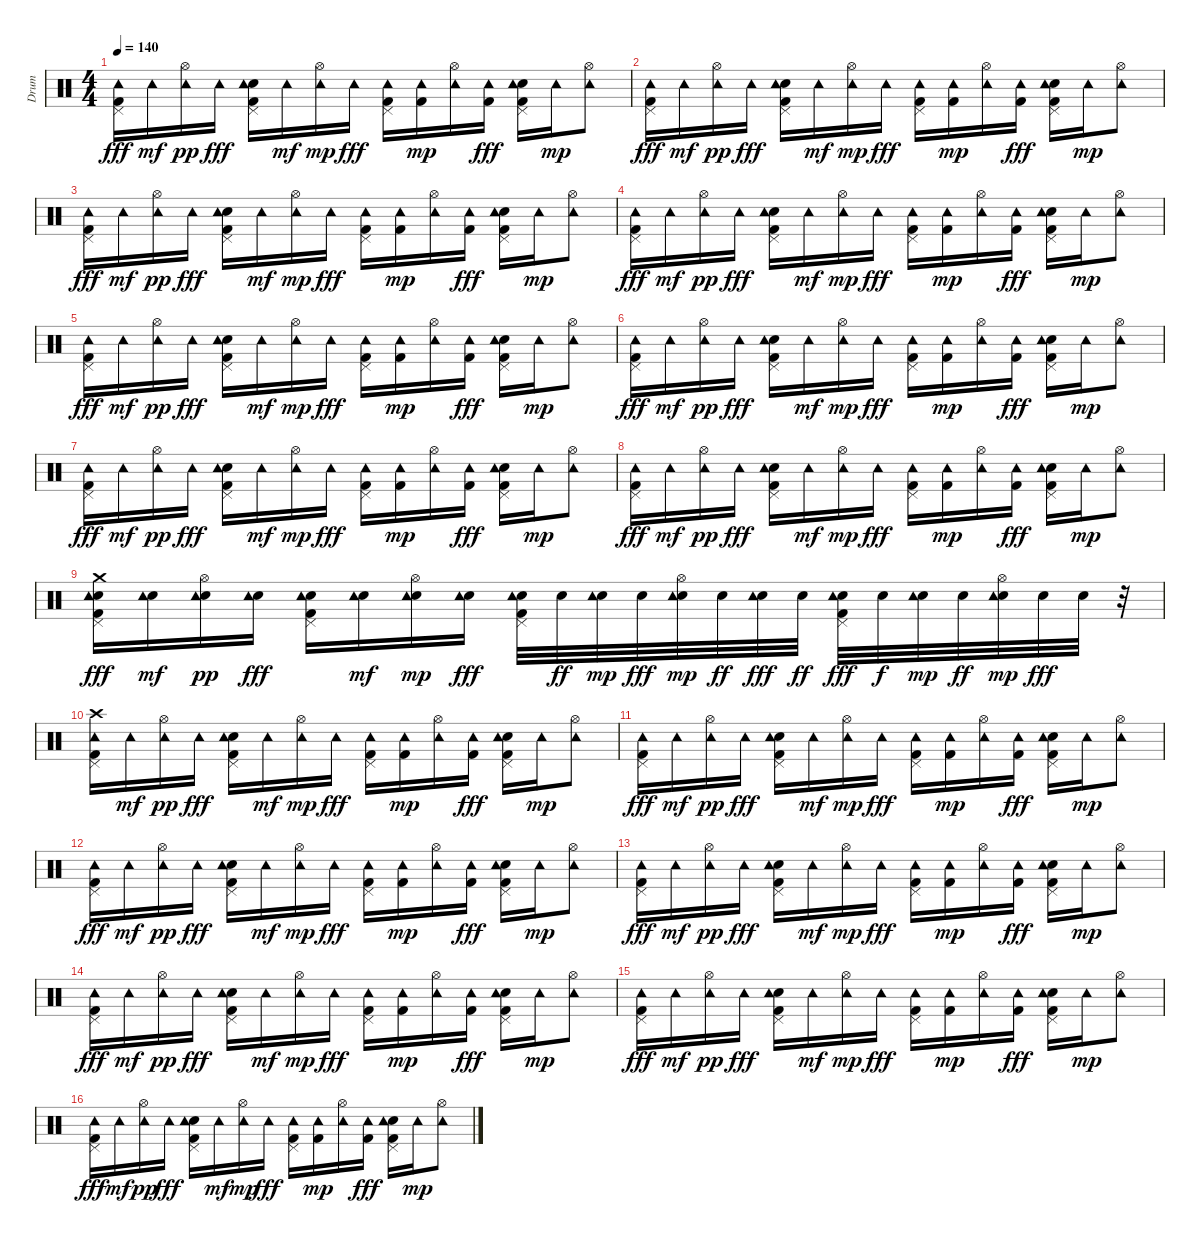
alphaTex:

\track ("Drum" "Drum") {instrument percussion}
\staff {score}
\articulation defaults
\ts (4 4)
\tempo 140
\clef neutral
\ks c
("Tambourine (hit)" "Kick (hit) 2" "Pedal Hi-Hat (hit)").16{dy fff} "Tambourine (hit)".16{dy mf} ("Hi-Hat (open)" "Tambourine (hit)").16{dy pp} "Tambourine (hit)".16{dy fff} ("Snare (hit) 2" "Tambourine (hit)" "Kick (hit) 2" "Pedal Hi-Hat (hit)").16 "Tambourine (hit)".16{dy mf} ("Hi-Hat (open)" "Tambourine (hit)").16{dy mp} "Tambourine (hit)".16{dy fff} ("Tambourine (hit)" "Kick (hit) 2" "Pedal Hi-Hat (hit)").16 ("Kick (hit) 2" "Tambourine (hit)").16{dy mp} ("Hi-Hat (open)" "Tambourine (hit)").16 ("Kick (hit) 2" "Tambourine (hit)").16{dy fff} ("Snare (hit) 2" "Tambourine (hit)" "Kick (hit) 2" "Pedal Hi-Hat (hit)").16 "Tambourine (hit)".16{dy mp} ("Hi-Hat (open)" "Tambourine (hit)").8 |
("Tambourine (hit)" "Kick (hit) 2" "Pedal Hi-Hat (hit)").16{dy fff} "Tambourine (hit)".16{dy mf} ("Hi-Hat (open)" "Tambourine (hit)").16{dy pp} "Tambourine (hit)".16{dy fff} ("Snare (hit) 2" "Tambourine (hit)" "Kick (hit) 2" "Pedal Hi-Hat (hit)").16 "Tambourine (hit)".16{dy mf} ("Hi-Hat (open)" "Tambourine (hit)").16{dy mp} "Tambourine (hit)".16{dy fff} ("Tambourine (hit)" "Kick (hit) 2" "Pedal Hi-Hat (hit)").16 ("Kick (hit) 2" "Tambourine (hit)").16{dy mp} ("Hi-Hat (open)" "Tambourine (hit)").16 ("Kick (hit) 2" "Tambourine (hit)").16{dy fff} ("Snare (hit) 2" "Tambourine (hit)" "Kick (hit) 2" "Pedal Hi-Hat (hit)").16 "Tambourine (hit)".16{dy mp} ("Hi-Hat (open)" "Tambourine (hit)").8 |
("Tambourine (hit)" "Kick (hit) 2" "Pedal Hi-Hat (hit)").16{dy fff} "Tambourine (hit)".16{dy mf} ("Hi-Hat (open)" "Tambourine (hit)").16{dy pp} "Tambourine (hit)".16{dy fff} ("Snare (hit) 2" "Tambourine (hit)" "Kick (hit) 2" "Pedal Hi-Hat (hit)").16 "Tambourine (hit)".16{dy mf} ("Hi-Hat (open)" "Tambourine (hit)").16{dy mp} "Tambourine (hit)".16{dy fff} ("Tambourine (hit)" "Kick (hit) 2" "Pedal Hi-Hat (hit)").16 ("Kick (hit) 2" "Tambourine (hit)").16{dy mp} ("Hi-Hat (open)" "Tambourine (hit)").16 ("Kick (hit) 2" "Tambourine (hit)").16{dy fff} ("Snare (hit) 2" "Tambourine (hit)" "Kick (hit) 2" "Pedal Hi-Hat (hit)").16 "Tambourine (hit)".16{dy mp} ("Hi-Hat (open)" "Tambourine (hit)").8 |
("Tambourine (hit)" "Kick (hit) 2" "Pedal Hi-Hat (hit)").16{dy fff} "Tambourine (hit)".16{dy mf} ("Hi-Hat (open)" "Tambourine (hit)").16{dy pp} "Tambourine (hit)".16{dy fff} ("Snare (hit) 2" "Tambourine (hit)" "Kick (hit) 2" "Pedal Hi-Hat (hit)").16 "Tambourine (hit)".16{dy mf} ("Hi-Hat (open)" "Tambourine (hit)").16{dy mp} "Tambourine (hit)".16{dy fff} ("Tambourine (hit)" "Kick (hit) 2" "Pedal Hi-Hat (hit)").16 ("Kick (hit) 2" "Tambourine (hit)").16{dy mp} ("Hi-Hat (open)" "Tambourine (hit)").16 ("Kick (hit) 2" "Tambourine (hit)").16{dy fff} ("Snare (hit) 2" "Tambourine (hit)" "Kick (hit) 2" "Pedal Hi-Hat (hit)").16 "Tambourine (hit)".16{dy mp} ("Hi-Hat (open)" "Tambourine (hit)").8 |
("Tambourine (hit)" "Kick (hit) 2" "Pedal Hi-Hat (hit)").16{dy fff} "Tambourine (hit)".16{dy mf} ("Hi-Hat (open)" "Tambourine (hit)").16{dy pp} "Tambourine (hit)".16{dy fff} ("Snare (hit) 2" "Tambourine (hit)" "Kick (hit) 2" "Pedal Hi-Hat (hit)").16 "Tambourine (hit)".16{dy mf} ("Hi-Hat (open)" "Tambourine (hit)").16{dy mp} "Tambourine (hit)".16{dy fff} ("Tambourine (hit)" "Kick (hit) 2" "Pedal Hi-Hat (hit)").16 ("Kick (hit) 2" "Tambourine (hit)").16{dy mp} ("Hi-Hat (open)" "Tambourine (hit)").16 ("Kick (hit) 2" "Tambourine (hit)").16{dy fff} ("Snare (hit) 2" "Tambourine (hit)" "Kick (hit) 2" "Pedal Hi-Hat (hit)").16 "Tambourine (hit)".16{dy mp} ("Hi-Hat (open)" "Tambourine (hit)").8 |
("Tambourine (hit)" "Kick (hit) 2" "Pedal Hi-Hat (hit)").16{dy fff} "Tambourine (hit)".16{dy mf} ("Hi-Hat (open)" "Tambourine (hit)").16{dy pp} "Tambourine (hit)".16{dy fff} ("Snare (hit) 2" "Tambourine (hit)" "Kick (hit) 2" "Pedal Hi-Hat (hit)").16 "Tambourine (hit)".16{dy mf} ("Hi-Hat (open)" "Tambourine (hit)").16{dy mp} "Tambourine (hit)".16{dy fff} ("Tambourine (hit)" "Kick (hit) 2" "Pedal Hi-Hat (hit)").16 ("Kick (hit) 2" "Tambourine (hit)").16{dy mp} ("Hi-Hat (open)" "Tambourine (hit)").16 ("Kick (hit) 2" "Tambourine (hit)").16{dy fff} ("Snare (hit) 2" "Tambourine (hit)" "Kick (hit) 2" "Pedal Hi-Hat (hit)").16 "Tambourine (hit)".16{dy mp} ("Hi-Hat (open)" "Tambourine (hit)").8 |
("Tambourine (hit)" "Kick (hit) 2" "Pedal Hi-Hat (hit)").16{dy fff} "Tambourine (hit)".16{dy mf} ("Hi-Hat (open)" "Tambourine (hit)").16{dy pp} "Tambourine (hit)".16{dy fff} ("Snare (hit) 2" "Tambourine (hit)" "Kick (hit) 2" "Pedal Hi-Hat (hit)").16 "Tambourine (hit)".16{dy mf} ("Hi-Hat (open)" "Tambourine (hit)").16{dy mp} "Tambourine (hit)".16{dy fff} ("Tambourine (hit)" "Kick (hit) 2" "Pedal Hi-Hat (hit)").16 ("Kick (hit) 2" "Tambourine (hit)").16{dy mp} ("Hi-Hat (open)" "Tambourine (hit)").16 ("Kick (hit) 2" "Tambourine (hit)").16{dy fff} ("Snare (hit) 2" "Tambourine (hit)" "Kick (hit) 2" "Pedal Hi-Hat (hit)").16 "Tambourine (hit)".16{dy mp} ("Hi-Hat (open)" "Tambourine (hit)").8 |
("Tambourine (hit)" "Kick (hit) 2" "Pedal Hi-Hat (hit)").16{dy fff} "Tambourine (hit)".16{dy mf} ("Hi-Hat (open)" "Tambourine (hit)").16{dy pp} "Tambourine (hit)".16{dy fff} ("Snare (hit) 2" "Tambourine (hit)" "Kick (hit) 2" "Pedal Hi-Hat (hit)").16 "Tambourine (hit)".16{dy mf} ("Hi-Hat (open)" "Tambourine (hit)").16{dy mp} "Tambourine (hit)".16{dy fff} ("Tambourine (hit)" "Kick (hit) 2" "Pedal Hi-Hat (hit)").16 ("Kick (hit) 2" "Tambourine (hit)").16{dy mp} ("Hi-Hat (open)" "Tambourine (hit)").16 ("Kick (hit) 2" "Tambourine (hit)").16{dy fff} ("Snare (hit) 2" "Tambourine (hit)" "Kick (hit) 2" "Pedal Hi-Hat (hit)").16 "Tambourine (hit)".16{dy mp} ("Hi-Hat (open)" "Tambourine (hit)").8 |
("Snare (hit) 2" "Tambourine (hit)" "Crash medium (hit)" "Pedal Hi-Hat (hit)" "Kick (hit) 2").16{dy fff} ("Snare (hit) 2" "Tambourine (hit)").16{dy mf} ("Snare (hit) 2" "Hi-Hat (open)" "Tambourine (hit)").16{dy pp} ("Snare (hit) 2" "Tambourine (hit)").16{dy fff} ("Snare (hit) 2" "Tambourine (hit)" "Pedal Hi-Hat (hit)" "Kick (hit) 2").16 ("Snare (hit) 2" "Tambourine (hit)").16{dy mf} ("Snare (hit) 2" "Hi-Hat (open)" "Tambourine (hit)").16{dy mp} ("Snare (hit) 2" "Tambourine (hit)").16{dy fff} ("Snare (hit) 2" "Tambourine (hit)" "Pedal Hi-Hat (hit)" "Kick (hit) 2").32 "Snare (hit) 2".32{dy ff} ("Snare (hit) 2" "Tambourine (hit)").32{dy mp} "Snare (hit) 2".32{dy fff} ("Snare (hit) 2" "Hi-Hat (open)" "Tambourine (hit)").32{dy mp} "Snare (hit) 2".32{dy ff} ("Snare (hit) 2" "Tambourine (hit)").32{dy fff} "Snare (hit) 2".32{dy ff} ("Snare (hit) 2" "Tambourine (hit)" "Pedal Hi-Hat (hit)" "Kick (hit) 2").32{dy fff} "Snare (hit) 2".32{dy f} ("Snare (hit) 2" "Tambourine (hit)").32{dy mp} "Snare (hit) 2".32{dy ff} ("Snare (hit) 2" "Hi-Hat (open)" "Tambourine (hit)").32{dy mp} "Snare (hit) 2".32{dy fff} "Snare (hit) 2".32 r.32 |
("Tambourine (hit)" "Kick (hit) 2" "Pedal Hi-Hat (hit)" "Crash high (hit)").16 "Tambourine (hit)".16{dy mf} ("Hi-Hat (open)" "Tambourine (hit)").16{dy pp} "Tambourine (hit)".16{dy fff} ("Snare (hit) 2" "Tambourine (hit)" "Kick (hit) 2" "Pedal Hi-Hat (hit)").16 "Tambourine (hit)".16{dy mf} ("Hi-Hat (open)" "Tambourine (hit)").16{dy mp} "Tambourine (hit)".16{dy fff} ("Tambourine (hit)" "Kick (hit) 2" "Pedal Hi-Hat (hit)").16 ("Kick (hit) 2" "Tambourine (hit)").16{dy mp} ("Hi-Hat (open)" "Tambourine (hit)").16 ("Kick (hit) 2" "Tambourine (hit)").16{dy fff} ("Snare (hit) 2" "Tambourine (hit)" "Kick (hit) 2" "Pedal Hi-Hat (hit)").16 "Tambourine (hit)".16{dy mp} ("Hi-Hat (open)" "Tambourine (hit)").8 |
("Tambourine (hit)" "Kick (hit) 2" "Pedal Hi-Hat (hit)").16{dy fff} "Tambourine (hit)".16{dy mf} ("Hi-Hat (open)" "Tambourine (hit)").16{dy pp} "Tambourine (hit)".16{dy fff} ("Snare (hit) 2" "Tambourine (hit)" "Kick (hit) 2" "Pedal Hi-Hat (hit)").16 "Tambourine (hit)".16{dy mf} ("Hi-Hat (open)" "Tambourine (hit)").16{dy mp} "Tambourine (hit)".16{dy fff} ("Tambourine (hit)" "Kick (hit) 2" "Pedal Hi-Hat (hit)").16 ("Kick (hit) 2" "Tambourine (hit)").16{dy mp} ("Hi-Hat (open)" "Tambourine (hit)").16 ("Kick (hit) 2" "Tambourine (hit)").16{dy fff} ("Snare (hit) 2" "Tambourine (hit)" "Kick (hit) 2" "Pedal Hi-Hat (hit)").16 "Tambourine (hit)".16{dy mp} ("Hi-Hat (open)" "Tambourine (hit)").8 |
("Tambourine (hit)" "Kick (hit) 2" "Pedal Hi-Hat (hit)").16{dy fff} "Tambourine (hit)".16{dy mf} ("Hi-Hat (open)" "Tambourine (hit)").16{dy pp} "Tambourine (hit)".16{dy fff} ("Snare (hit) 2" "Tambourine (hit)" "Kick (hit) 2" "Pedal Hi-Hat (hit)").16 "Tambourine (hit)".16{dy mf} ("Hi-Hat (open)" "Tambourine (hit)").16{dy mp} "Tambourine (hit)".16{dy fff} ("Tambourine (hit)" "Kick (hit) 2" "Pedal Hi-Hat (hit)").16 ("Kick (hit) 2" "Tambourine (hit)").16{dy mp} ("Hi-Hat (open)" "Tambourine (hit)").16 ("Kick (hit) 2" "Tambourine (hit)").16{dy fff} ("Snare (hit) 2" "Tambourine (hit)" "Kick (hit) 2" "Pedal Hi-Hat (hit)").16 "Tambourine (hit)".16{dy mp} ("Hi-Hat (open)" "Tambourine (hit)").8 |
("Tambourine (hit)" "Kick (hit) 2" "Pedal Hi-Hat (hit)").16{dy fff} "Tambourine (hit)".16{dy mf} ("Hi-Hat (open)" "Tambourine (hit)").16{dy pp} "Tambourine (hit)".16{dy fff} ("Snare (hit) 2" "Tambourine (hit)" "Kick (hit) 2" "Pedal Hi-Hat (hit)").16 "Tambourine (hit)".16{dy mf} ("Hi-Hat (open)" "Tambourine (hit)").16{dy mp} "Tambourine (hit)".16{dy fff} ("Tambourine (hit)" "Kick (hit) 2" "Pedal Hi-Hat (hit)").16 ("Kick (hit) 2" "Tambourine (hit)").16{dy mp} ("Hi-Hat (open)" "Tambourine (hit)").16 ("Kick (hit) 2" "Tambourine (hit)").16{dy fff} ("Snare (hit) 2" "Tambourine (hit)" "Kick (hit) 2" "Pedal Hi-Hat (hit)").16 "Tambourine (hit)".16{dy mp} ("Hi-Hat (open)" "Tambourine (hit)").8 |
("Tambourine (hit)" "Kick (hit) 2" "Pedal Hi-Hat (hit)").16{dy fff} "Tambourine (hit)".16{dy mf} ("Hi-Hat (open)" "Tambourine (hit)").16{dy pp} "Tambourine (hit)".16{dy fff} ("Snare (hit) 2" "Tambourine (hit)" "Kick (hit) 2" "Pedal Hi-Hat (hit)").16 "Tambourine (hit)".16{dy mf} ("Hi-Hat (open)" "Tambourine (hit)").16{dy mp} "Tambourine (hit)".16{dy fff} ("Tambourine (hit)" "Kick (hit) 2" "Pedal Hi-Hat (hit)").16 ("Kick (hit) 2" "Tambourine (hit)").16{dy mp} ("Hi-Hat (open)" "Tambourine (hit)").16 ("Kick (hit) 2" "Tambourine (hit)").16{dy fff} ("Snare (hit) 2" "Tambourine (hit)" "Kick (hit) 2" "Pedal Hi-Hat (hit)").16 "Tambourine (hit)".16{dy mp} ("Hi-Hat (open)" "Tambourine (hit)").8 |
("Tambourine (hit)" "Kick (hit) 2" "Pedal Hi-Hat (hit)").16{dy fff} "Tambourine (hit)".16{dy mf} ("Hi-Hat (open)" "Tambourine (hit)").16{dy pp} "Tambourine (hit)".16{dy fff} ("Snare (hit) 2" "Tambourine (hit)" "Kick (hit) 2" "Pedal Hi-Hat (hit)").16 "Tambourine (hit)".16{dy mf} ("Hi-Hat (open)" "Tambourine (hit)").16{dy mp} "Tambourine (hit)".16{dy fff} ("Tambourine (hit)" "Kick (hit) 2" "Pedal Hi-Hat (hit)").16 ("Kick (hit) 2" "Tambourine (hit)").16{dy mp} ("Hi-Hat (open)" "Tambourine (hit)").16 ("Kick (hit) 2" "Tambourine (hit)").16{dy fff} ("Snare (hit) 2" "Tambourine (hit)" "Kick (hit) 2" "Pedal Hi-Hat (hit)").16 "Tambourine (hit)".16{dy mp} ("Hi-Hat (open)" "Tambourine (hit)").8 |
("Tambourine (hit)" "Kick (hit) 2" "Pedal Hi-Hat (hit)").16{dy fff} "Tambourine (hit)".16{dy mf} ("Hi-Hat (open)" "Tambourine (hit)").16{dy pp} "Tambourine (hit)".16{dy fff} ("Snare (hit) 2" "Tambourine (hit)" "Kick (hit) 2" "Pedal Hi-Hat (hit)").16 "Tambourine (hit)".16{dy mf} ("Hi-Hat (open)" "Tambourine (hit)").16{dy mp} "Tambourine (hit)".16{dy fff} ("Tambourine (hit)" "Kick (hit) 2" "Pedal Hi-Hat (hit)").16 ("Kick (hit) 2" "Tambourine (hit)").16{dy mp} ("Hi-Hat (open)" "Tambourine (hit)").16 ("Kick (hit) 2" "Tambourine (hit)").16{dy fff} ("Snare (hit) 2" "Tambourine (hit)" "Kick (hit) 2" "Pedal Hi-Hat (hit)").16 "Tambourine (hit)".16{dy mp} ("Hi-Hat (open)" "Tambourine (hit)").8
